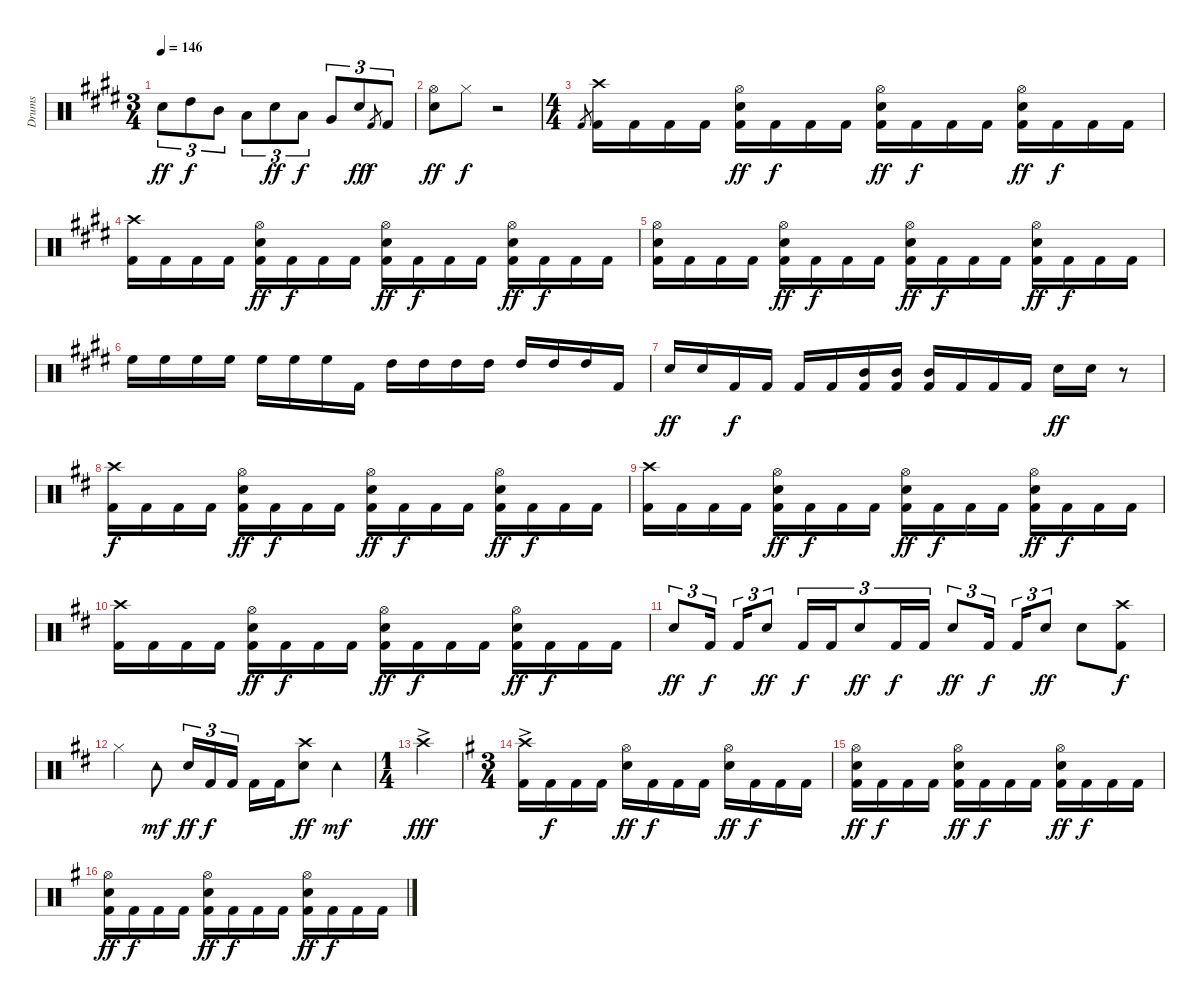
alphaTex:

\track ("Drums" "Drums") {instrument percussion}
\staff {score}
\articulation defaults
\ts (3 4)
\tempo 146
\clef neutral
\ks e "Electric Snare (hit)".8{tu (3 2) dy ff} "High Tom (hit)".8{tu (3 2) dy f} "Mid Tom (hit)".8{tu (3 2)} "Low Tom (hit)".8{tu (3 2)} "Electric Snare (hit)".8{tu (3 2) dy ff} "Low Tom (hit)".8{tu (3 2) dy f} "Very Low Tom (hit)".8{tu (3 2)} "Electric Snare (hit)".8{tu (3 2) dy ff} "Kick (hit) 2".8{gr dy f} "Kick (hit) 2".8{tu (3 2)}
|
("Electric Snare (hit)" "Hi-Hat (open)").8{dy ff} "Hi-Hat (closed)".8{dy f} r.2 |
\ts (4 4)
"Kick (hit) 2".8{gr} ("Kick (hit) 2" "Crash high (hit)").16 "Kick (hit) 2".16 "Kick (hit) 2".16 "Kick (hit) 2".16 ("Kick (hit) 2" "Electric Snare (hit)" "Hi-Hat (open)").16{dy ff} "Kick (hit) 2".16{dy f} "Kick (hit) 2".16 "Kick (hit) 2".16 ("Kick (hit) 2" "Electric Snare (hit)" "Hi-Hat (open)").16{dy ff} "Kick (hit) 2".16{dy f} "Kick (hit) 2".16 "Kick (hit) 2".16 ("Kick (hit) 2" "Electric Snare (hit)" "Hi-Hat (open)").16{dy ff} "Kick (hit) 2".16{dy f} "Kick (hit) 2".16 "Kick (hit) 2".16 |
("Kick (hit) 2" "Crash high (hit)").16 "Kick (hit) 2".16 "Kick (hit) 2".16 "Kick (hit) 2".16 ("Kick (hit) 2" "Electric Snare (hit)" "Hi-Hat (open)").16{dy ff} "Kick (hit) 2".16{dy f} "Kick (hit) 2".16 "Kick (hit) 2".16 ("Kick (hit) 2" "Electric Snare (hit)" "Hi-Hat (open)").16{dy ff} "Kick (hit) 2".16{dy f} "Kick (hit) 2".16 "Kick (hit) 2".16 ("Kick (hit) 2" "Electric Snare (hit)" "Hi-Hat (open)").16{dy ff} "Kick (hit) 2".16{dy f} "Kick (hit) 2".16 "Kick (hit) 2".16 |
("Kick (hit) 2" "Electric Snare (hit)" "Hi-Hat (open)").16 "Kick (hit) 2".16 "Kick (hit) 2".16 "Kick (hit) 2".16 ("Kick (hit) 2" "Electric Snare (hit)" "Hi-Hat (open)").16{dy ff} "Kick (hit) 2".16{dy f} "Kick (hit) 2".16 "Kick (hit) 2".16 ("Kick (hit) 2" "Electric Snare (hit)" "Hi-Hat (open)").16{dy ff} "Kick (hit) 2".16{dy f} "Kick (hit) 2".16 "Kick (hit) 2".16 ("Kick (hit) 2" "Electric Snare (hit)" "Hi-Hat (open)").16{dy ff} "Kick (hit) 2".16{dy f} "Kick (hit) 2".16 "Kick (hit) 2".16 |
"High Floor Tom (hit)".16 "High Floor Tom (hit)".16 "High Floor Tom (hit)".16 "High Floor Tom (hit)".16 "High Floor Tom (hit)".16 "High Floor Tom (hit)".16 "High Floor Tom (hit)".16 "Kick (hit) 2".16 "High Tom (hit)".16 "High Tom (hit)".16 "High Tom (hit)".16 "High Tom (hit)".16 "High Tom (hit)".16 "High Tom (hit)".16 "High Tom (hit)".16 "Kick (hit) 2".16 |
"Electric Snare (hit)".16{dy ff} "Electric Snare (hit)".16 "Kick (hit) 2".16{dy f} "Kick (hit) 2".16 "Kick (hit) 2".16 "Kick (hit) 2".16 ("Kick (hit) 2" "Mid Tom (hit)").16 ("Kick (hit) 2" "Mid Tom (hit)").16 ("Kick (hit) 2" "Mid Tom (hit)").16 "Kick (hit) 2".16 "Kick (hit) 2".16 "Kick (hit) 2".16 "Electric Snare (hit)".16{dy ff} "Electric Snare (hit)".16 r.8 |
\ks d
("Kick (hit) 2" "Crash high (hit)").16{dy f} "Kick (hit) 2".16 "Kick (hit) 2".16 "Kick (hit) 2".16 ("Kick (hit) 2" "Electric Snare (hit)" "Hi-Hat (open)").16{dy ff} "Kick (hit) 2".16{dy f} "Kick (hit) 2".16 "Kick (hit) 2".16 ("Kick (hit) 2" "Electric Snare (hit)" "Hi-Hat (open)").16{dy ff} "Kick (hit) 2".16{dy f} "Kick (hit) 2".16 "Kick (hit) 2".16 ("Kick (hit) 2" "Electric Snare (hit)" "Hi-Hat (open)").16{dy ff} "Kick (hit) 2".16{dy f} "Kick (hit) 2".16 "Kick (hit) 2".16 |
("Kick (hit) 2" "Crash high (hit)").16 "Kick (hit) 2".16 "Kick (hit) 2".16 "Kick (hit) 2".16 ("Kick (hit) 2" "Electric Snare (hit)" "Hi-Hat (open)").16{dy ff} "Kick (hit) 2".16{dy f} "Kick (hit) 2".16 "Kick (hit) 2".16 ("Kick (hit) 2" "Electric Snare (hit)" "Hi-Hat (open)").16{dy ff} "Kick (hit) 2".16{dy f} "Kick (hit) 2".16 "Kick (hit) 2".16 ("Kick (hit) 2" "Electric Snare (hit)" "Hi-Hat (open)").16{dy ff} "Kick (hit) 2".16{dy f} "Kick (hit) 2".16 "Kick (hit) 2".16 |
("Kick (hit) 2" "Crash high (hit)").16 "Kick (hit) 2".16 "Kick (hit) 2".16 "Kick (hit) 2".16 ("Kick (hit) 2" "Electric Snare (hit)" "Hi-Hat (open)").16{dy ff} "Kick (hit) 2".16{dy f} "Kick (hit) 2".16 "Kick (hit) 2".16 ("Kick (hit) 2" "Electric Snare (hit)" "Hi-Hat (open)").16{dy ff} "Kick (hit) 2".16{dy f} "Kick (hit) 2".16 "Kick (hit) 2".16 ("Kick (hit) 2" "Electric Snare (hit)" "Hi-Hat (open)").16{dy ff} "Kick (hit) 2".16{dy f} "Kick (hit) 2".16 "Kick (hit) 2".16 |
"Electric Snare (hit)".8{tu (3 2) dy ff} "Kick (hit) 2".16{tu (3 2) dy f} "Kick (hit) 2".16{tu (3 2)} "Electric Snare (hit)".8{tu (3 2) dy ff} "Kick (hit) 2".16{tu (3 2) dy f} "Kick (hit) 2".16{tu (3 2)} "Electric Snare (hit)".8{tu (3 2) dy ff} "Kick (hit) 2".16{tu (3 2) dy f} "Kick (hit) 2".16{tu (3 2)} "Electric Snare (hit)".8{tu (3 2) dy ff} "Kick (hit) 2".16{tu (3 2) dy f} "Kick (hit) 2".16{tu (3 2)} "Electric Snare (hit)".8{tu (3 2) dy ff} "Electric Snare (hit)".8 ("Kick (hit) 2" "Crash high (hit)").8{dy f} |
"Hi-Hat (closed)".4 "Tambourine (hit)".8{dy mf} "Electric Snare (hit)".16{tu (3 2) dy ff} "Kick (hit) 2".16{tu (3 2) dy f} "Kick (hit) 2".16{tu (3 2)} "Kick (hit) 2".16 "Kick (hit) 2".16 ("Electric Snare (hit)" "Crash high (hit)").8{dy ff} "Tambourine (hit)".4{dy mf} |
\ts (1 4)
"Crash high (hit)"{ac}.4{dy fff} |
\ts (3 4)
\ks g
("Kick (hit) 2" "Crash high (hit)"{ac}).16 "Kick (hit) 2".16{dy f} "Kick (hit) 2".16 "Kick (hit) 2".16 ("Electric Snare (hit)" "Hi-Hat (open)").16{dy ff} "Kick (hit) 2".16{dy f} "Kick (hit) 2".16 "Kick (hit) 2".16 ("Electric Snare (hit)" "Hi-Hat (open)").16{dy ff} "Kick (hit) 2".16{dy f} "Kick (hit) 2".16 "Kick (hit) 2".16 |
("Kick (hit) 2" "Electric Snare (hit)" "Hi-Hat (open)").16{dy ff} "Kick (hit) 2".16{dy f} "Kick (hit) 2".16 "Kick (hit) 2".16 ("Kick (hit) 2" "Electric Snare (hit)" "Hi-Hat (open)").16{dy ff} "Kick (hit) 2".16{dy f} "Kick (hit) 2".16 "Kick (hit) 2".16 ("Kick (hit) 2" "Electric Snare (hit)" "Hi-Hat (open)").16{dy ff} "Kick (hit) 2".16{dy f} "Kick (hit) 2".16 "Kick (hit) 2".16 |
("Kick (hit) 2" "Electric Snare (hit)" "Hi-Hat (open)").16{dy ff} "Kick (hit) 2".16{dy f} "Kick (hit) 2".16 "Kick (hit) 2".16 ("Kick (hit) 2" "Electric Snare (hit)" "Hi-Hat (open)").16{dy ff} "Kick (hit) 2".16{dy f} "Kick (hit) 2".16 "Kick (hit) 2".16 ("Kick (hit) 2" "Electric Snare (hit)" "Hi-Hat (open)").16{dy ff} "Kick (hit) 2".16{dy f} "Kick (hit) 2".16 "Kick (hit) 2".16
